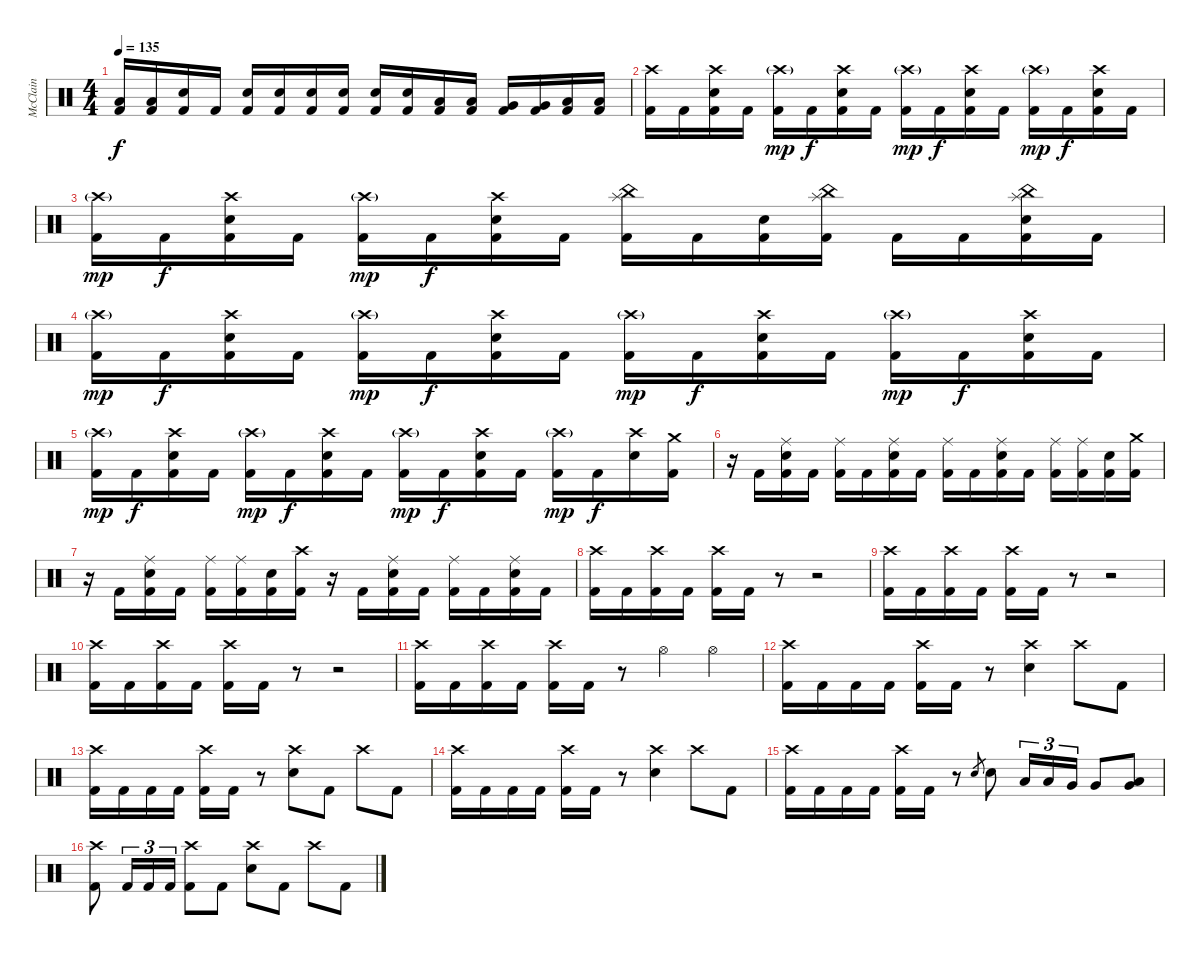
\track ("McClain" "McClain") {instrument percussion}
\staff {score}
\articulation defaults
\ts (4 4)
\tempo 135
\clef neutral
\ks c
("Low Tom (hit)" "Kick (hit) 2").16{dy f} ("Low Tom (hit)" "Kick (hit) 2").16 ("Electric Snare (hit)" "Kick (hit) 2").16 "Kick (hit) 2".16 ("Electric Snare (hit)" "Kick (hit) 2").16 ("Electric Snare (hit)" "Kick (hit) 2").16 ("Electric Snare (hit)" "Kick (hit) 2").16 ("Electric Snare (hit)" "Kick (hit) 2").16 ("Electric Snare (hit)" "Kick (hit) 2").16 ("Electric Snare (hit)" "Kick (hit) 2").16 ("Low Tom (hit)" "Kick (hit) 2").16 ("Low Tom (hit)" "Kick (hit) 2").16 ("Very Low Tom (hit)" "Kick (hit) 2").16 ("Very Low Tom (hit)" "Kick (hit) 2").16 ("Low Floor Tom (hit)" "Kick (hit) 2").16 ("Low Floor Tom (hit)" "Kick (hit) 2").16 |
("Crash high (hit)" "Kick (hit) 2").16 "Kick (hit) 2".16 ("Crash high (hit)" "Electric Snare (hit)" "Kick (hit) 2").16 "Kick (hit) 2".16 ("Crash high (hit)"{g} "Kick (hit) 2").16{dy mp} "Kick (hit) 2".16{dy f} ("Crash high (hit)" "Electric Snare (hit)" "Kick (hit) 2").16 "Kick (hit) 2".16 ("Crash high (hit)"{g} "Kick (hit) 2").16{dy mp} "Kick (hit) 2".16{dy f} ("Crash high (hit)" "Electric Snare (hit)" "Kick (hit) 2").16 "Kick (hit) 2".16 ("Crash high (hit)"{g} "Kick (hit) 2").16{dy mp} "Kick (hit) 2".16{dy f} ("Crash high (hit)" "Electric Snare (hit)" "Kick (hit) 2").16 "Kick (hit) 2".16 |
("Crash high (hit)"{g} "Kick (hit) 2").16{dy mp} "Kick (hit) 2".16{dy f} ("Crash high (hit)" "Electric Snare (hit)" "Kick (hit) 2").16 "Kick (hit) 2".16 ("Crash high (hit)"{g} "Kick (hit) 2").16{dy mp} "Kick (hit) 2".16{dy f} ("Crash high (hit)" "Electric Snare (hit)" "Kick (hit) 2").16 "Kick (hit) 2".16 ("China (hit)" "Splash (hit)" "Kick (hit) 2").16 "Kick (hit) 2".16 ("Electric Snare (hit)" "Kick (hit) 2").16 ("China (hit)" "Splash (hit)" "Kick (hit) 2").16 "Kick (hit) 2".16 "Kick (hit) 2".16 ("China (hit)" "Splash (hit)" "Electric Snare (hit)" "Kick (hit) 2").16 "Kick (hit) 2".16 |
("Crash high (hit)"{g} "Kick (hit) 2").16{dy mp} "Kick (hit) 2".16{dy f} ("Crash high (hit)" "Electric Snare (hit)" "Kick (hit) 2").16 "Kick (hit) 2".16 ("Crash high (hit)"{g} "Kick (hit) 2").16{dy mp} "Kick (hit) 2".16{dy f} ("Crash high (hit)" "Electric Snare (hit)" "Kick (hit) 2").16 "Kick (hit) 2".16 ("Crash high (hit)"{g} "Kick (hit) 2").16{dy mp} "Kick (hit) 2".16{dy f} ("Crash high (hit)" "Electric Snare (hit)" "Kick (hit) 2").16 "Kick (hit) 2".16 ("Crash high (hit)"{g} "Kick (hit) 2").16{dy mp} "Kick (hit) 2".16{dy f} ("Crash high (hit)" "Electric Snare (hit)" "Kick (hit) 2").16 "Kick (hit) 2".16 |
("Crash high (hit)"{g} "Kick (hit) 2").16{dy mp} "Kick (hit) 2".16{dy f} ("Crash high (hit)" "Electric Snare (hit)" "Kick (hit) 2").16 "Kick (hit) 2".16 ("Crash high (hit)"{g} "Kick (hit) 2").16{dy mp} "Kick (hit) 2".16{dy f} ("Crash high (hit)" "Electric Snare (hit)" "Kick (hit) 2").16 "Kick (hit) 2".16 ("Crash high (hit)"{g} "Kick (hit) 2").16{dy mp} "Kick (hit) 2".16{dy f} ("Crash high (hit)" "Electric Snare (hit)" "Kick (hit) 2").16 "Kick (hit) 2".16 ("Crash high (hit)"{g} "Kick (hit) 2").16{dy mp} "Kick (hit) 2".16{dy f} ("Crash high (hit)" "Electric Snare (hit)").16 ("Crash medium (hit)" "Kick (hit) 2").16 |
r.16 "Kick (hit) 2".16 ("Ride (middle)" "Electric Snare (hit)" "Kick (hit) 2").16 "Kick (hit) 2".16 ("Ride (middle)" "Kick (hit) 2").16 "Kick (hit) 2".16 ("Ride (middle)" "Electric Snare (hit)" "Kick (hit) 2").16 "Kick (hit) 2".16 ("Ride (middle)" "Kick (hit) 2").16 "Kick (hit) 2".16 ("Ride (middle)" "Electric Snare (hit)" "Kick (hit) 2").16 "Kick (hit) 2".16 ("Ride (middle)" "Kick (hit) 2").16 ("Ride (middle)" "Kick (hit) 2").16 ("Electric Snare (hit)" "Kick (hit) 2").16 ("Crash medium (hit)" "Kick (hit) 2").16 |
r.16 "Kick (hit) 2".16 ("Ride (middle)" "Electric Snare (hit)" "Kick (hit) 2").16 "Kick (hit) 2".16 ("Ride (middle)" "Kick (hit) 2").16 ("Ride (middle)" "Kick (hit) 2").16 ("Electric Snare (hit)" "Kick (hit) 2").16 ("Crash high (hit)" "Kick (hit) 2").16 r.16 "Kick (hit) 2".16 ("Ride (middle)" "Electric Snare (hit)" "Kick (hit) 2").16 "Kick (hit) 2".16 ("Ride (middle)" "Kick (hit) 2").16 "Kick (hit) 2".16 ("Ride (middle)" "Electric Snare (hit)" "Kick (hit) 2").16 "Kick (hit) 2".16 |
("Crash high (hit)" "Kick (hit) 2").16 "Kick (hit) 2".16 ("Crash high (hit)" "Kick (hit) 2").16 "Kick (hit) 2".16 ("Crash high (hit)" "Kick (hit) 2").16 "Kick (hit) 2".16 r.8 r.2 |
("Crash high (hit)" "Kick (hit) 2").16 "Kick (hit) 2".16 ("Crash high (hit)" "Kick (hit) 2").16 "Kick (hit) 2".16 ("Crash high (hit)" "Kick (hit) 2").16 "Kick (hit) 2".16 r.8 r.2 |
("Crash high (hit)" "Kick (hit) 2").16 "Kick (hit) 2".16 ("Crash high (hit)" "Kick (hit) 2").16 "Kick (hit) 2".16 ("Crash high (hit)" "Kick (hit) 2").16 "Kick (hit) 2".16 r.8 r.2 |
("Crash high (hit)" "Kick (hit) 2").16 "Kick (hit) 2".16 ("Crash high (hit)" "Kick (hit) 2").16 "Kick (hit) 2".16 ("Crash high (hit)" "Kick (hit) 2").16 "Kick (hit) 2".16 r.8 "Hi-Hat (open)".4 "Hi-Hat (open)".4 |
("Crash high (hit)" "Kick (hit) 2").16 "Kick (hit) 2".16 "Kick (hit) 2".16 "Kick (hit) 2".16 ("Crash high (hit)" "Kick (hit) 2").16 "Kick (hit) 2".16 r.8 ("Crash high (hit)" "Electric Snare (hit)").4 "Crash high (hit)".8 "Kick (hit) 2".8 |
("Crash high (hit)" "Kick (hit) 2").16 "Kick (hit) 2".16 "Kick (hit) 2".16 "Kick (hit) 2".16 ("Crash high (hit)" "Kick (hit) 2").16 "Kick (hit) 2".16 r.8 ("Crash high (hit)" "Electric Snare (hit)").8 "Kick (hit) 2".8 "Crash high (hit)".8 "Kick (hit) 2".8 |
("Crash high (hit)" "Kick (hit) 2").16 "Kick (hit) 2".16 "Kick (hit) 2".16 "Kick (hit) 2".16 ("Crash high (hit)" "Kick (hit) 2").16 "Kick (hit) 2".16 r.8 ("Crash high (hit)" "Electric Snare (hit)").4 "Crash high (hit)".8 "Kick (hit) 2".8 |
("Crash high (hit)" "Kick (hit) 2").16 "Kick (hit) 2".16 "Kick (hit) 2".16 "Kick (hit) 2".16 ("Crash high (hit)" "Kick (hit) 2").16 "Kick (hit) 2".16 r.8 "Electric Snare (hit)".8{gr} "Electric Snare (hit)".8 "Low Tom (hit)".16{tu (3 2)} "Low Tom (hit)".16{tu (3 2)} "Very Low Tom (hit)".16{tu (3 2)} "Very Low Tom (hit)".8 ("Very Low Tom (hit)" "Low Floor Tom (hit)").8 |
("Crash high (hit)" "Kick (hit) 2").8 "Kick (hit) 2".16{tu (3 2)} "Kick (hit) 2".16{tu (3 2)} "Kick (hit) 2".16{tu (3 2)} ("Crash high (hit)" "Kick (hit) 2").8 "Kick (hit) 2".8 ("Crash high (hit)" "Electric Snare (hit)").8 "Kick (hit) 2".8 "Crash high (hit)".8 "Kick (hit) 2".8
